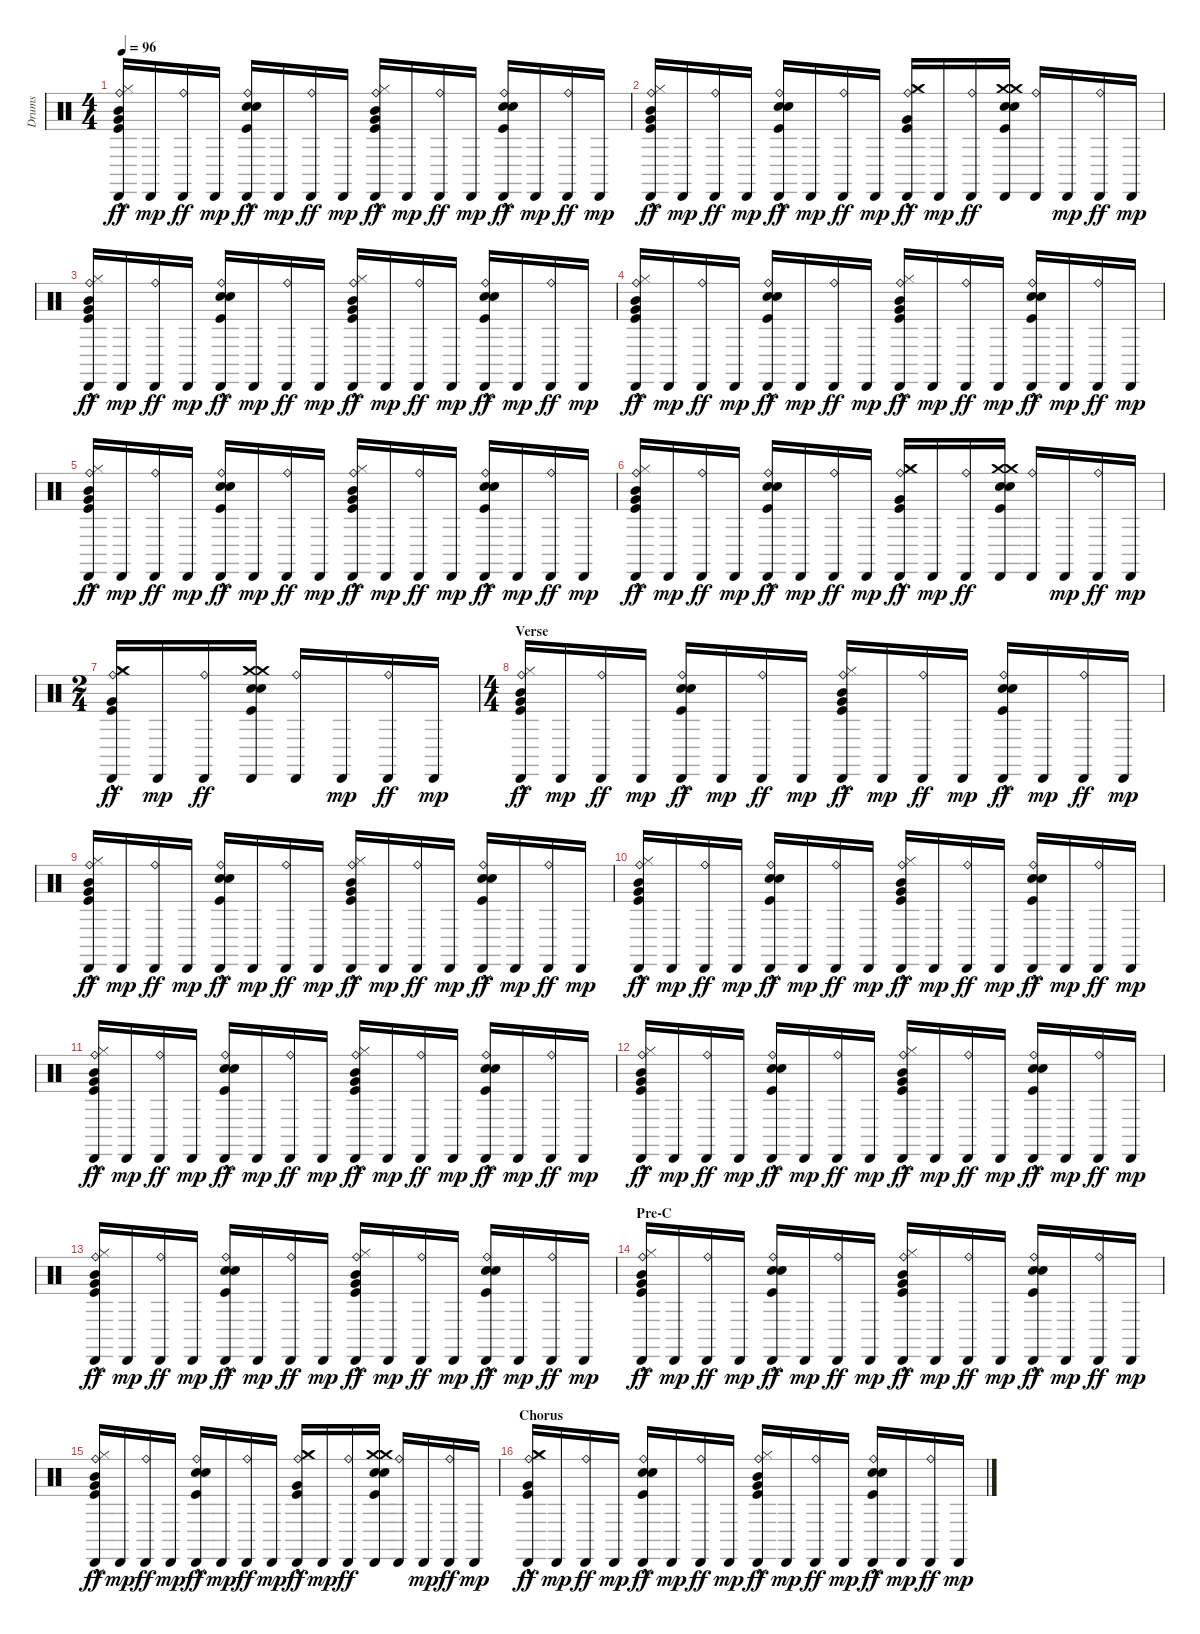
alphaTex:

\track ("Drums" "Drums") {instrument percussion}
\staff {score}
\articulation defaults
\ts (4 4)
\tempo 96
\clef neutral
\ks c
("Kick (hit)"{hac} "Hi-Hat (closed)"{hac} "Very Low Tom (hit)"{hac} "Cabasa (hit)" "Ride (bell)" "Mid Tom (hit)"{hac}).16{dy ff} "Cabasa (hit)".16{dy mp} ("Cabasa (hit)" "Ride (bell)").16{dy ff} "Cabasa (hit)".16{dy mp} ("Kick (hit)"{hac} "Snare (hit) 2"{hac} "Electric Snare (hit)"{hac} "Cabasa (hit)" "Ride (bell)").16{dy ff} "Cabasa (hit)".16{dy mp} ("Cabasa (hit)" "Ride (bell)").16{dy ff} "Cabasa (hit)".16{dy mp} ("Kick (hit)"{hac} "Hi-Hat (closed)"{hac} "Very Low Tom (hit)"{hac} "Cabasa (hit)" "Ride (bell)" "Mid Tom (hit)"{hac}).16{dy ff} "Cabasa (hit)".16{dy mp} ("Cabasa (hit)" "Ride (bell)").16{dy ff} "Cabasa (hit)".16{dy mp} ("Kick (hit)"{hac} "Snare (hit) 2"{hac} "Electric Snare (hit)"{hac} "Cabasa (hit)" "Ride (bell)").16{dy ff} "Cabasa (hit)".16{dy mp} ("Cabasa (hit)" "Ride (bell)").16{dy ff} "Cabasa (hit)".16{dy mp} |
("Kick (hit)"{hac} "Hi-Hat (closed)"{hac} "Very Low Tom (hit)"{hac} "Cabasa (hit)" "Ride (bell)" "Mid Tom (hit)").16{dy ff} "Cabasa (hit)".16{dy mp} ("Cabasa (hit)" "Ride (bell)").16{dy ff} "Cabasa (hit)".16{dy mp} ("Kick (hit)"{hac} "Snare (hit) 2"{hac} "Electric Snare (hit)"{hac} "Cabasa (hit)" "Ride (bell)").16{dy ff} "Cabasa (hit)".16{dy mp} ("Cabasa (hit)" "Ride (bell)").16{dy ff} "Cabasa (hit)".16{dy mp} ("Crash medium (hit)"{hac} "Kick (hit)"{hac} "Hi-Hat (closed)"{hac} "Very Low Tom (hit)"{hac} "Cabasa (hit)" "Ride (bell)").16{dy ff} "Cabasa (hit)".16{dy mp} ("Cabasa (hit)" "Ride (bell)").16{dy ff} ("Crash medium (hit)" "Kick (hit)" "Snare (hit) 2" "Electric Snare (hit)" "Cabasa (hit)" "Crash medium (hit)").16 ("Cabasa (hit)" "Ride (bell)").16 "Cabasa (hit)".16{dy mp} ("Cabasa (hit)" "Ride (bell)").16{dy ff} "Cabasa (hit)".16{dy mp} |
("Kick (hit)"{hac} "Hi-Hat (closed)"{hac} "Very Low Tom (hit)"{hac} "Cabasa (hit)" "Ride (bell)" "Mid Tom (hit)"{hac}).16{dy ff} "Cabasa (hit)".16{dy mp} ("Cabasa (hit)" "Ride (bell)").16{dy ff} "Cabasa (hit)".16{dy mp} ("Kick (hit)"{hac} "Snare (hit) 2"{hac} "Electric Snare (hit)"{hac} "Cabasa (hit)" "Ride (bell)").16{dy ff} "Cabasa (hit)".16{dy mp} ("Cabasa (hit)" "Ride (bell)").16{dy ff} "Cabasa (hit)".16{dy mp} ("Kick (hit)"{hac} "Hi-Hat (closed)"{hac} "Very Low Tom (hit)"{hac} "Cabasa (hit)" "Ride (bell)" "Mid Tom (hit)"{hac}).16{dy ff} "Cabasa (hit)".16{dy mp} ("Cabasa (hit)" "Ride (bell)").16{dy ff} "Cabasa (hit)".16{dy mp} ("Kick (hit)"{hac} "Snare (hit) 2"{hac} "Electric Snare (hit)"{hac} "Cabasa (hit)" "Ride (bell)").16{dy ff} "Cabasa (hit)".16{dy mp} ("Cabasa (hit)" "Ride (bell)").16{dy ff} "Cabasa (hit)".16{dy mp} |
("Kick (hit)"{hac} "Hi-Hat (closed)"{hac} "Very Low Tom (hit)"{hac} "Cabasa (hit)" "Ride (bell)" "Mid Tom (hit)"{hac}).16{dy ff} "Cabasa (hit)".16{dy mp} ("Cabasa (hit)" "Ride (bell)").16{dy ff} "Cabasa (hit)".16{dy mp} ("Kick (hit)"{hac} "Snare (hit) 2"{hac} "Electric Snare (hit)"{hac} "Cabasa (hit)" "Ride (bell)").16{dy ff} "Cabasa (hit)".16{dy mp} ("Cabasa (hit)" "Ride (bell)").16{dy ff} "Cabasa (hit)".16{dy mp} ("Kick (hit)"{hac} "Hi-Hat (closed)"{hac} "Very Low Tom (hit)"{hac} "Cabasa (hit)" "Ride (bell)" "Mid Tom (hit)"{hac}).16{dy ff} "Cabasa (hit)".16{dy mp} ("Cabasa (hit)" "Ride (bell)").16{dy ff} "Cabasa (hit)".16{dy mp} ("Kick (hit)"{hac} "Snare (hit) 2"{hac} "Electric Snare (hit)"{hac} "Cabasa (hit)" "Ride (bell)").16{dy ff} "Cabasa (hit)".16{dy mp} ("Cabasa (hit)" "Ride (bell)").16{dy ff} "Cabasa (hit)".16{dy mp} |
("Kick (hit)"{hac} "Hi-Hat (closed)"{hac} "Very Low Tom (hit)"{hac} "Cabasa (hit)" "Ride (bell)" "Mid Tom (hit)"{hac}).16{dy ff} "Cabasa (hit)".16{dy mp} ("Cabasa (hit)" "Ride (bell)").16{dy ff} "Cabasa (hit)".16{dy mp} ("Kick (hit)"{hac} "Snare (hit) 2"{hac} "Electric Snare (hit)"{hac} "Cabasa (hit)" "Ride (bell)").16{dy ff} "Cabasa (hit)".16{dy mp} ("Cabasa (hit)" "Ride (bell)").16{dy ff} "Cabasa (hit)".16{dy mp} ("Kick (hit)"{hac} "Hi-Hat (closed)"{hac} "Very Low Tom (hit)"{hac} "Cabasa (hit)" "Ride (bell)" "Mid Tom (hit)"{hac}).16{dy ff} "Cabasa (hit)".16{dy mp} ("Cabasa (hit)" "Ride (bell)").16{dy ff} "Cabasa (hit)".16{dy mp} ("Kick (hit)"{hac} "Snare (hit) 2"{hac} "Electric Snare (hit)"{hac} "Cabasa (hit)" "Ride (bell)").16{dy ff} "Cabasa (hit)".16{dy mp} ("Cabasa (hit)" "Ride (bell)").16{dy ff} "Cabasa (hit)".16{dy mp} |
("Kick (hit)"{hac} "Hi-Hat (closed)"{hac} "Very Low Tom (hit)"{hac} "Cabasa (hit)" "Ride (bell)" "Mid Tom (hit)").16{dy ff} "Cabasa (hit)".16{dy mp} ("Cabasa (hit)" "Ride (bell)").16{dy ff} "Cabasa (hit)".16{dy mp} ("Kick (hit)"{hac} "Snare (hit) 2"{hac} "Electric Snare (hit)"{hac} "Cabasa (hit)" "Ride (bell)").16{dy ff} "Cabasa (hit)".16{dy mp} ("Cabasa (hit)" "Ride (bell)").16{dy ff} "Cabasa (hit)".16{dy mp} ("Crash medium (hit)"{hac} "Kick (hit)"{hac} "Hi-Hat (closed)"{hac} "Very Low Tom (hit)"{hac} "Cabasa (hit)" "Ride (bell)").16{dy ff} "Cabasa (hit)".16{dy mp} ("Cabasa (hit)" "Ride (bell)").16{dy ff} ("Crash medium (hit)" "Kick (hit)" "Snare (hit) 2" "Electric Snare (hit)" "Cabasa (hit)" "Crash medium (hit)").16 ("Cabasa (hit)" "Ride (bell)").16 "Cabasa (hit)".16{dy mp} ("Cabasa (hit)" "Ride (bell)").16{dy ff} "Cabasa (hit)".16{dy mp} |
\ts (2 4)
("Crash medium (hit)"{hac} "Kick (hit)"{hac} "Hi-Hat (closed)"{hac} "Very Low Tom (hit)"{hac} "Cabasa (hit)" "Ride (bell)").16{dy ff} "Cabasa (hit)".16{dy mp} ("Cabasa (hit)" "Ride (bell)").16{dy ff} ("Crash medium (hit)" "Kick (hit)" "Snare (hit) 2" "Electric Snare (hit)" "Cabasa (hit)" "Crash medium (hit)").16 ("Cabasa (hit)" "Ride (bell)").16 "Cabasa (hit)".16{dy mp} ("Cabasa (hit)" "Ride (bell)").16{dy ff} "Cabasa (hit)".16{dy mp} |
\ts (4 4)
\section ("" "Verse")
("Kick (hit)"{hac} "Hi-Hat (closed)"{hac} "Very Low Tom (hit)"{hac} "Cabasa (hit)" "Ride (bell)" "Mid Tom (hit)"{hac}).16{dy ff} "Cabasa (hit)".16{dy mp} ("Cabasa (hit)" "Ride (bell)").16{dy ff} "Cabasa (hit)".16{dy mp} ("Kick (hit)"{hac} "Snare (hit) 2"{hac} "Electric Snare (hit)"{hac} "Cabasa (hit)" "Ride (bell)").16{dy ff} "Cabasa (hit)".16{dy mp} ("Cabasa (hit)" "Ride (bell)").16{dy ff} "Cabasa (hit)".16{dy mp} ("Kick (hit)"{hac} "Hi-Hat (closed)"{hac} "Very Low Tom (hit)"{hac} "Cabasa (hit)" "Ride (bell)" "Mid Tom (hit)"{hac}).16{dy ff} "Cabasa (hit)".16{dy mp} ("Cabasa (hit)" "Ride (bell)").16{dy ff} "Cabasa (hit)".16{dy mp} ("Kick (hit)"{hac} "Snare (hit) 2"{hac} "Electric Snare (hit)"{hac} "Cabasa (hit)" "Ride (bell)").16{dy ff} "Cabasa (hit)".16{dy mp} ("Cabasa (hit)" "Ride (bell)").16{dy ff} "Cabasa (hit)".16{dy mp} |
("Kick (hit)"{hac} "Hi-Hat (closed)"{hac} "Very Low Tom (hit)"{hac} "Cabasa (hit)" "Ride (bell)" "Mid Tom (hit)"{hac}).16{dy ff} "Cabasa (hit)".16{dy mp} ("Cabasa (hit)" "Ride (bell)").16{dy ff} "Cabasa (hit)".16{dy mp} ("Kick (hit)"{hac} "Snare (hit) 2"{hac} "Electric Snare (hit)"{hac} "Cabasa (hit)" "Ride (bell)").16{dy ff} "Cabasa (hit)".16{dy mp} ("Cabasa (hit)" "Ride (bell)").16{dy ff} "Cabasa (hit)".16{dy mp} ("Kick (hit)"{hac} "Hi-Hat (closed)"{hac} "Very Low Tom (hit)"{hac} "Cabasa (hit)" "Ride (bell)" "Mid Tom (hit)"{hac}).16{dy ff} "Cabasa (hit)".16{dy mp} ("Cabasa (hit)" "Ride (bell)").16{dy ff} "Cabasa (hit)".16{dy mp} ("Kick (hit)"{hac} "Snare (hit) 2"{hac} "Electric Snare (hit)"{hac} "Cabasa (hit)" "Ride (bell)").16{dy ff} "Cabasa (hit)".16{dy mp} ("Cabasa (hit)" "Ride (bell)").16{dy ff} "Cabasa (hit)".16{dy mp} |
("Kick (hit)"{hac} "Hi-Hat (closed)"{hac} "Very Low Tom (hit)"{hac} "Cabasa (hit)" "Ride (bell)" "Mid Tom (hit)"{hac}).16{dy ff} "Cabasa (hit)".16{dy mp} ("Cabasa (hit)" "Ride (bell)").16{dy ff} "Cabasa (hit)".16{dy mp} ("Kick (hit)"{hac} "Snare (hit) 2"{hac} "Electric Snare (hit)"{hac} "Cabasa (hit)" "Ride (bell)").16{dy ff} "Cabasa (hit)".16{dy mp} ("Cabasa (hit)" "Ride (bell)").16{dy ff} "Cabasa (hit)".16{dy mp} ("Kick (hit)"{hac} "Hi-Hat (closed)"{hac} "Very Low Tom (hit)"{hac} "Cabasa (hit)" "Ride (bell)" "Mid Tom (hit)"{hac}).16{dy ff} "Cabasa (hit)".16{dy mp} ("Cabasa (hit)" "Ride (bell)").16{dy ff} "Cabasa (hit)".16{dy mp} ("Kick (hit)"{hac} "Snare (hit) 2"{hac} "Electric Snare (hit)"{hac} "Cabasa (hit)" "Ride (bell)").16{dy ff} "Cabasa (hit)".16{dy mp} ("Cabasa (hit)" "Ride (bell)").16{dy ff} "Cabasa (hit)".16{dy mp} |
("Kick (hit)"{hac} "Hi-Hat (closed)"{hac} "Very Low Tom (hit)"{hac} "Cabasa (hit)" "Ride (bell)" "Mid Tom (hit)"{hac}).16{dy ff} "Cabasa (hit)".16{dy mp} ("Cabasa (hit)" "Ride (bell)").16{dy ff} "Cabasa (hit)".16{dy mp} ("Kick (hit)"{hac} "Snare (hit) 2"{hac} "Electric Snare (hit)"{hac} "Cabasa (hit)" "Ride (bell)").16{dy ff} "Cabasa (hit)".16{dy mp} ("Cabasa (hit)" "Ride (bell)").16{dy ff} "Cabasa (hit)".16{dy mp} ("Kick (hit)"{hac} "Hi-Hat (closed)"{hac} "Very Low Tom (hit)"{hac} "Cabasa (hit)" "Ride (bell)" "Mid Tom (hit)"{hac}).16{dy ff} "Cabasa (hit)".16{dy mp} ("Cabasa (hit)" "Ride (bell)").16{dy ff} "Cabasa (hit)".16{dy mp} ("Kick (hit)"{hac} "Snare (hit) 2"{hac} "Electric Snare (hit)"{hac} "Cabasa (hit)" "Ride (bell)").16{dy ff} "Cabasa (hit)".16{dy mp} ("Cabasa (hit)" "Ride (bell)").16{dy ff} "Cabasa (hit)".16{dy mp} |
("Kick (hit)"{hac} "Hi-Hat (closed)"{hac} "Very Low Tom (hit)"{hac} "Cabasa (hit)" "Ride (bell)" "Mid Tom (hit)"{hac}).16{dy ff} "Cabasa (hit)".16{dy mp} ("Cabasa (hit)" "Ride (bell)").16{dy ff} "Cabasa (hit)".16{dy mp} ("Kick (hit)"{hac} "Snare (hit) 2"{hac} "Electric Snare (hit)"{hac} "Cabasa (hit)" "Ride (bell)").16{dy ff} "Cabasa (hit)".16{dy mp} ("Cabasa (hit)" "Ride (bell)").16{dy ff} "Cabasa (hit)".16{dy mp} ("Kick (hit)"{hac} "Hi-Hat (closed)"{hac} "Very Low Tom (hit)"{hac} "Cabasa (hit)" "Ride (bell)" "Mid Tom (hit)"{hac}).16{dy ff} "Cabasa (hit)".16{dy mp} ("Cabasa (hit)" "Ride (bell)").16{dy ff} "Cabasa (hit)".16{dy mp} ("Kick (hit)"{hac} "Snare (hit) 2"{hac} "Electric Snare (hit)"{hac} "Cabasa (hit)" "Ride (bell)").16{dy ff} "Cabasa (hit)".16{dy mp} ("Cabasa (hit)" "Ride (bell)").16{dy ff} "Cabasa (hit)".16{dy mp} |
("Kick (hit)"{hac} "Hi-Hat (closed)"{hac} "Very Low Tom (hit)"{hac} "Cabasa (hit)" "Ride (bell)" "Mid Tom (hit)"{hac}).16{dy ff} "Cabasa (hit)".16{dy mp} ("Cabasa (hit)" "Ride (bell)").16{dy ff} "Cabasa (hit)".16{dy mp} ("Kick (hit)"{hac} "Snare (hit) 2"{hac} "Electric Snare (hit)"{hac} "Cabasa (hit)" "Ride (bell)").16{dy ff} "Cabasa (hit)".16{dy mp} ("Cabasa (hit)" "Ride (bell)").16{dy ff} "Cabasa (hit)".16{dy mp} ("Kick (hit)"{hac} "Hi-Hat (closed)"{hac} "Very Low Tom (hit)"{hac} "Cabasa (hit)" "Ride (bell)" "Mid Tom (hit)"{hac}).16{dy ff} "Cabasa (hit)".16{dy mp} ("Cabasa (hit)" "Ride (bell)").16{dy ff} "Cabasa (hit)".16{dy mp} ("Kick (hit)"{hac} "Snare (hit) 2"{hac} "Electric Snare (hit)"{hac} "Cabasa (hit)" "Ride (bell)").16{dy ff} "Cabasa (hit)".16{dy mp} ("Cabasa (hit)" "Ride (bell)").16{dy ff} "Cabasa (hit)".16{dy mp} |
\section ("" "Pre-C")
("Kick (hit)"{hac} "Hi-Hat (closed)"{hac} "Very Low Tom (hit)"{hac} "Cabasa (hit)" "Ride (bell)" "Mid Tom (hit)"{hac}).16{dy ff} "Cabasa (hit)".16{dy mp} ("Cabasa (hit)" "Ride (bell)").16{dy ff} "Cabasa (hit)".16{dy mp} ("Kick (hit)"{hac} "Snare (hit) 2"{hac} "Electric Snare (hit)"{hac} "Cabasa (hit)" "Ride (bell)").16{dy ff} "Cabasa (hit)".16{dy mp} ("Cabasa (hit)" "Ride (bell)").16{dy ff} "Cabasa (hit)".16{dy mp} ("Kick (hit)"{hac} "Hi-Hat (closed)"{hac} "Very Low Tom (hit)"{hac} "Cabasa (hit)" "Ride (bell)" "Mid Tom (hit)"{hac}).16{dy ff} "Cabasa (hit)".16{dy mp} ("Cabasa (hit)" "Ride (bell)").16{dy ff} "Cabasa (hit)".16{dy mp} ("Kick (hit)"{hac} "Snare (hit) 2"{hac} "Electric Snare (hit)"{hac} "Cabasa (hit)" "Ride (bell)").16{dy ff} "Cabasa (hit)".16{dy mp} ("Cabasa (hit)" "Ride (bell)").16{dy ff} "Cabasa (hit)".16{dy mp} |
("Kick (hit)"{hac} "Hi-Hat (closed)"{hac} "Very Low Tom (hit)"{hac} "Cabasa (hit)" "Ride (bell)" "Mid Tom (hit)").16{dy ff} "Cabasa (hit)".16{dy mp} ("Cabasa (hit)" "Ride (bell)").16{dy ff} "Cabasa (hit)".16{dy mp} ("Kick (hit)"{hac} "Snare (hit) 2"{hac} "Electric Snare (hit)"{hac} "Cabasa (hit)" "Ride (bell)").16{dy ff} "Cabasa (hit)".16{dy mp} ("Cabasa (hit)" "Ride (bell)").16{dy ff} "Cabasa (hit)".16{dy mp} ("Crash medium (hit)"{hac} "Kick (hit)"{hac} "Hi-Hat (closed)"{hac} "Very Low Tom (hit)"{hac} "Cabasa (hit)" "Ride (bell)").16{dy ff} "Cabasa (hit)".16{dy mp} ("Cabasa (hit)" "Ride (bell)").16{dy ff} ("Crash medium (hit)" "Kick (hit)" "Snare (hit) 2" "Electric Snare (hit)" "Cabasa (hit)" "Crash medium (hit)").16 ("Cabasa (hit)" "Ride (bell)").16 "Cabasa (hit)".16{dy mp} ("Cabasa (hit)" "Ride (bell)").16{dy ff} "Cabasa (hit)".16{dy mp} |
\section ("" "Chorus")
("Kick (hit)"{hac} "Hi-Hat (closed)"{hac} "Very Low Tom (hit)"{hac} "Cabasa (hit)" "Ride (bell)" "Crash medium (hit)"{hac}).16{dy ff} "Cabasa (hit)".16{dy mp} ("Cabasa (hit)" "Ride (bell)").16{dy ff} "Cabasa (hit)".16{dy mp} ("Kick (hit)"{hac} "Snare (hit) 2"{hac} "Electric Snare (hit)"{hac} "Cabasa (hit)" "Ride (bell)").16{dy ff} "Cabasa (hit)".16{dy mp} ("Cabasa (hit)" "Ride (bell)").16{dy ff} "Cabasa (hit)".16{dy mp} ("Kick (hit)"{hac} "Hi-Hat (closed)"{hac} "Very Low Tom (hit)"{hac} "Cabasa (hit)" "Ride (bell)" "Mid Tom (hit)"{hac}).16{dy ff} "Cabasa (hit)".16{dy mp} ("Cabasa (hit)" "Ride (bell)").16{dy ff} "Cabasa (hit)".16{dy mp} ("Kick (hit)"{hac} "Snare (hit) 2"{hac} "Electric Snare (hit)"{hac} "Cabasa (hit)" "Ride (bell)").16{dy ff} "Cabasa (hit)".16{dy mp} ("Cabasa (hit)" "Ride (bell)").16{dy ff} "Cabasa (hit)".16{dy mp}
